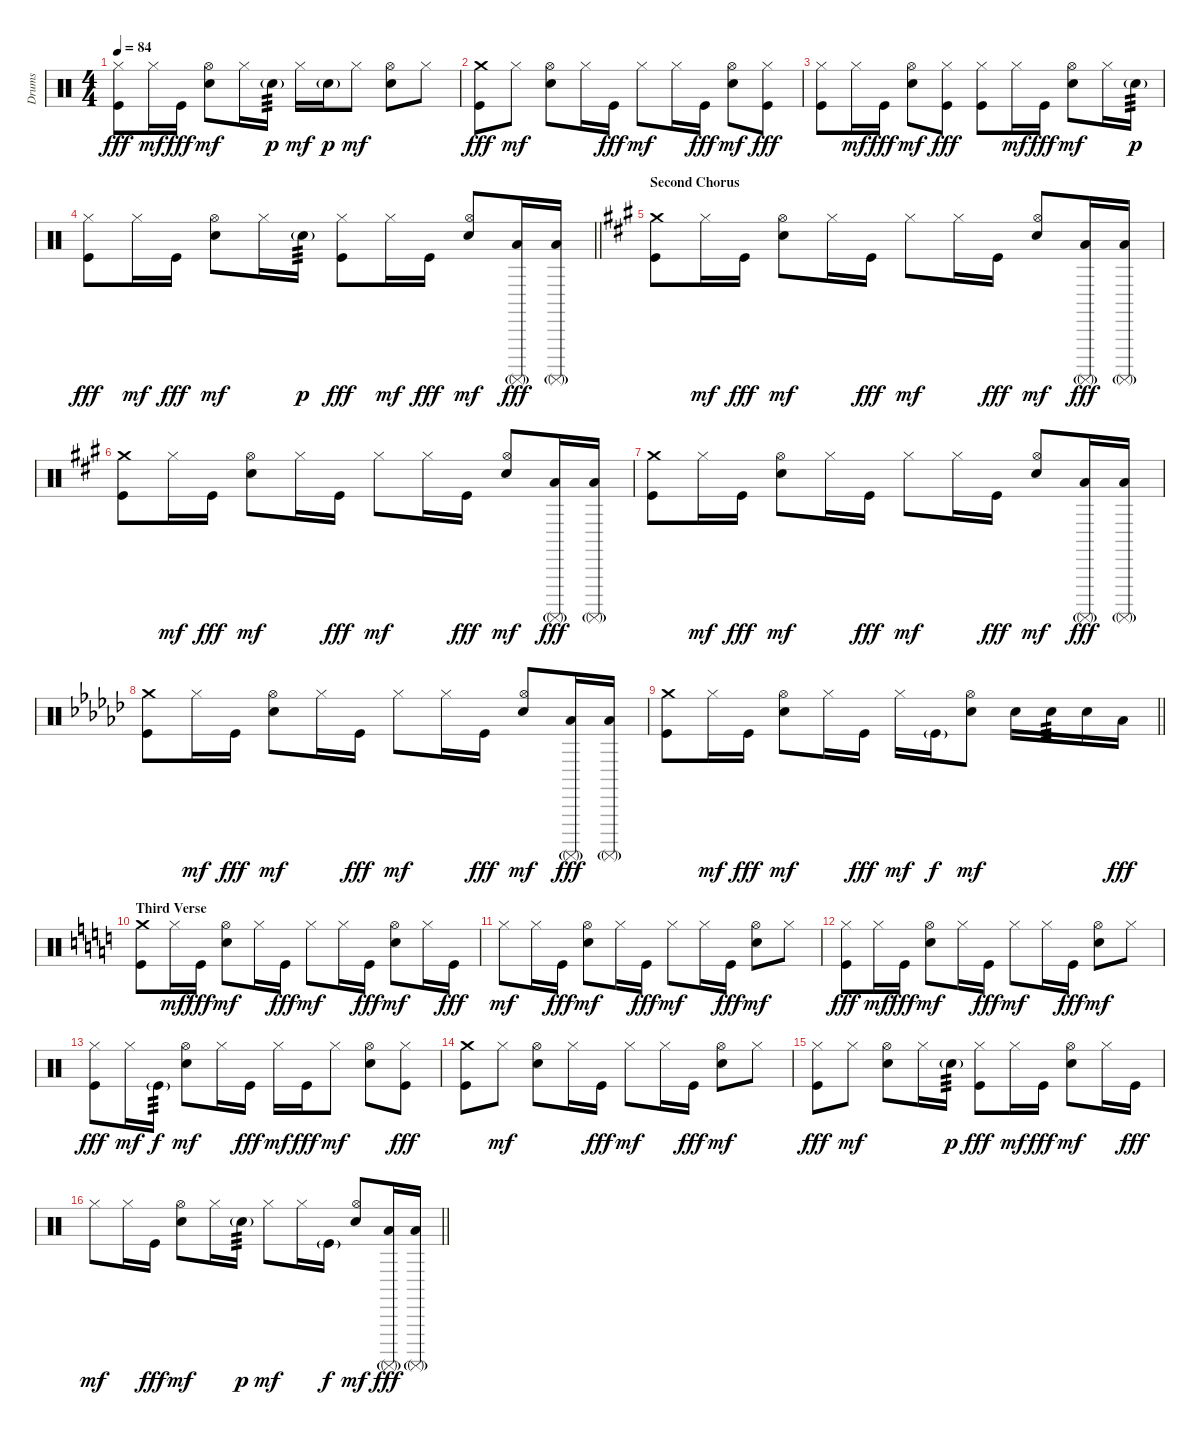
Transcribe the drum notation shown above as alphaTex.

\track ("Drums" "Drums") {instrument percussion}
\staff {score}
\articulation defaults
\ts (4 4)
\tempo 84
\clef neutral
\ks c
("Hi-Hat (closed)" "Kick (hit)").8{dy fff} "Hi-Hat (closed)".16{dy mf} "Kick (hit)".16{dy fff} ("Hi-Hat (open)" "Electric Snare (hit)").8{dy mf} "Hi-Hat (closed)".16 "Electric Snare (hit)"{g}.16{tp 3 dy p} "Hi-Hat (closed)".16{dy mf} "Electric Snare (hit)"{g}.16{dy p} "Hi-Hat (closed)".8{dy mf} ("Hi-Hat (open)" "Electric Snare (hit)").8 "Hi-Hat (closed)".8 |
("Crash medium (hit)" "Kick (hit)").8{dy fff} "Hi-Hat (closed)".8{dy mf} ("Hi-Hat (open)" "Electric Snare (hit)").8 "Hi-Hat (closed)".16 "Kick (hit)".16{dy fff} "Hi-Hat (closed)".8{dy mf} "Hi-Hat (closed)".16 "Kick (hit)".16{dy fff} ("Hi-Hat (open)" "Electric Snare (hit)").8{dy mf} ("Hi-Hat (closed)" "Kick (hit)").8{dy fff} |
("Hi-Hat (closed)" "Kick (hit)").8 "Hi-Hat (closed)".16{dy mf} "Kick (hit)".16{dy fff} ("Hi-Hat (open)" "Electric Snare (hit)").8{dy mf} ("Hi-Hat (closed)" "Kick (hit)").8{dy fff} ("Hi-Hat (closed)" "Kick (hit)").8 "Hi-Hat (closed)".16{dy mf} "Kick (hit)".16{dy fff} ("Hi-Hat (open)" "Electric Snare (hit)").8{dy mf} "Hi-Hat (closed)".16 "Electric Snare (hit)"{g}.16{tp 3 dy p} |
\barLineRight lightlight
("Hi-Hat (closed)" "Kick (hit)").8{dy fff} "Hi-Hat (closed)".16{dy mf} "Kick (hit)".16{dy fff} ("Hi-Hat (open)" "Electric Snare (hit)").8{dy mf} "Hi-Hat (closed)".16 "Electric Snare (hit)"{g}.16{tp 3 dy p} ("Hi-Hat (closed)" "Kick (hit)").8{dy fff} "Hi-Hat (closed)".16{dy mf} "Kick (hit)".16{dy fff} ("Hi-Hat (open)" "Electric Snare (hit)").8{dy mf} ("Surdo (mute)"{g} "Low Tom (hit)").16{dy fff} ("Surdo (mute)"{g} "Low Tom (hit)").16 |
\section ("" "Second Chorus")
\ks a
("Crash medium (hit)" "Kick (hit)").8 "Hi-Hat (closed)".16{dy mf} "Kick (hit)".16{dy fff} ("Hi-Hat (open)" "Electric Snare (hit)").8{dy mf} "Hi-Hat (closed)".16 "Kick (hit)".16{dy fff} "Hi-Hat (closed)".8{dy mf} "Hi-Hat (closed)".16 "Kick (hit)".16{dy fff} ("Hi-Hat (open)" "Electric Snare (hit)").8{dy mf} ("Surdo (mute)"{g} "Low Tom (hit)").16{dy fff} ("Surdo (mute)"{g} "Low Tom (hit)").16 |
("Crash medium (hit)" "Kick (hit)").8 "Hi-Hat (closed)".16{dy mf} "Kick (hit)".16{dy fff} ("Hi-Hat (open)" "Electric Snare (hit)").8{dy mf} "Hi-Hat (closed)".16 "Kick (hit)".16{dy fff} "Hi-Hat (closed)".8{dy mf} "Hi-Hat (closed)".16 "Kick (hit)".16{dy fff} ("Hi-Hat (open)" "Electric Snare (hit)").8{dy mf} ("Surdo (mute)"{g} "Low Tom (hit)").16{dy fff} ("Surdo (mute)"{g} "Low Tom (hit)").16 |
("Crash medium (hit)" "Kick (hit)").8 "Hi-Hat (closed)".16{dy mf} "Kick (hit)".16{dy fff} ("Hi-Hat (open)" "Electric Snare (hit)").8{dy mf} "Hi-Hat (closed)".16 "Kick (hit)".16{dy fff} "Hi-Hat (closed)".8{dy mf} "Hi-Hat (closed)".16 "Kick (hit)".16{dy fff} ("Hi-Hat (open)" "Electric Snare (hit)").8{dy mf} ("Surdo (mute)"{g} "Low Tom (hit)").16{dy fff} ("Surdo (mute)"{g} "Low Tom (hit)").16 |
\ks gb
("Crash medium (hit)" "Kick (hit)").8 "Hi-Hat (closed)".16{dy mf} "Kick (hit)".16{dy fff} ("Hi-Hat (open)" "Electric Snare (hit)").8{dy mf} "Hi-Hat (closed)".16 "Kick (hit)".16{dy fff} "Hi-Hat (closed)".8{dy mf} "Hi-Hat (closed)".16 "Kick (hit)".16{dy fff} ("Hi-Hat (open)" "Electric Snare (hit)").8{dy mf} ("Surdo (mute)"{g} "Low Tom (hit)").16{dy fff} ("Surdo (mute)"{g} "Low Tom (hit)").16 |
\barLineRight lightlight
("Crash medium (hit)" "Kick (hit)").8 "Hi-Hat (closed)".16{dy mf} "Kick (hit)".16{dy fff} ("Hi-Hat (open)" "Electric Snare (hit)").8{dy mf} "Hi-Hat (closed)".16 "Kick (hit)".16{dy fff} "Hi-Hat (closed)".16{dy mf} "Kick (hit)"{g}.16{dy f} ("Hi-Hat (open)" "Electric Snare (hit)").8{dy mf} "Electric Snare (hit)".16 "Electric Snare (hit)".16{tp 3} "Electric Snare (hit)".16 "Low Tom (hit)".16{dy fff} |
\section ("" "Third Verse")
\ks c
("Crash medium (hit)" "Kick (hit)").8 "Hi-Hat (closed)".16{dy mf} "Kick (hit)".16{dy fff} ("Hi-Hat (open)" "Electric Snare (hit)").8{dy mf} "Hi-Hat (closed)".16 "Kick (hit)".16{dy fff} "Hi-Hat (closed)".8{dy mf} "Hi-Hat (closed)".16 "Kick (hit)".16{dy fff} ("Hi-Hat (open)" "Electric Snare (hit)").8{dy mf} "Hi-Hat (closed)".16 "Kick (hit)".16{dy fff} |
"Hi-Hat (closed)".8{dy mf} "Hi-Hat (closed)".16 "Kick (hit)".16{dy fff} ("Hi-Hat (open)" "Electric Snare (hit)").8{dy mf} "Hi-Hat (closed)".16 "Kick (hit)".16{dy fff} "Hi-Hat (closed)".8{dy mf} "Hi-Hat (closed)".16 "Kick (hit)".16{dy fff} ("Hi-Hat (open)" "Electric Snare (hit)").8{dy mf} "Hi-Hat (closed)".8 |
("Hi-Hat (closed)" "Kick (hit)").8{dy fff} "Hi-Hat (closed)".16{dy mf} "Kick (hit)".16{dy fff} ("Hi-Hat (open)" "Electric Snare (hit)").8{dy mf} "Hi-Hat (closed)".16 "Kick (hit)".16{dy fff} "Hi-Hat (closed)".8{dy mf} "Hi-Hat (closed)".16 "Kick (hit)".16{dy fff} ("Hi-Hat (open)" "Electric Snare (hit)").8{dy mf} "Hi-Hat (closed)".8 |
("Hi-Hat (closed)" "Kick (hit)").8{dy fff} "Hi-Hat (closed)".16{dy mf} "Kick (hit)"{g}.16{tp 3 dy f} ("Hi-Hat (open)" "Electric Snare (hit)").8{dy mf} "Hi-Hat (closed)".16 "Kick (hit)".16{dy fff} "Hi-Hat (closed)".16{dy mf} "Kick (hit)".16{dy fff} "Hi-Hat (closed)".8{dy mf} ("Hi-Hat (open)" "Electric Snare (hit)").8 ("Hi-Hat (closed)" "Kick (hit)").8{dy fff} |
("Crash medium (hit)" "Kick (hit)").8 "Hi-Hat (closed)".8{dy mf} ("Hi-Hat (open)" "Electric Snare (hit)").8 "Hi-Hat (closed)".16 "Kick (hit)".16{dy fff} "Hi-Hat (closed)".8{dy mf} "Hi-Hat (closed)".16 "Kick (hit)".16{dy fff} ("Hi-Hat (open)" "Electric Snare (hit)").8{dy mf} "Hi-Hat (closed)".8 |
("Hi-Hat (closed)" "Kick (hit)").8{dy fff} "Hi-Hat (closed)".8{dy mf} ("Hi-Hat (open)" "Electric Snare (hit)").8 "Hi-Hat (closed)".16 "Electric Snare (hit)"{g}.16{tp 3 dy p} ("Hi-Hat (closed)" "Kick (hit)").8{dy fff} "Hi-Hat (closed)".16{dy mf} "Kick (hit)".16{dy fff} ("Hi-Hat (open)" "Electric Snare (hit)").8{dy mf} "Hi-Hat (closed)".16 "Kick (hit)".16{dy fff} |
\barLineRight lightlight "Hi-Hat (closed)".8{dy mf} "Hi-Hat (closed)".16 "Kick (hit)".16{dy fff}
("Hi-Hat (open)" "Electric Snare (hit)").8{dy mf} "Hi-Hat (closed)".16 "Electric Snare (hit)"{g}.16{tp 3 dy p} "Hi-Hat (closed)".8{dy mf} "Hi-Hat (closed)".16 "Kick (hit)"{g}.16{dy f} ("Hi-Hat (open)" "Electric Snare (hit)").8{dy mf} ("Surdo (mute)"{g} "Low Tom (hit)").16{dy fff} ("Surdo (mute)"{g} "Low Tom (hit)").16
